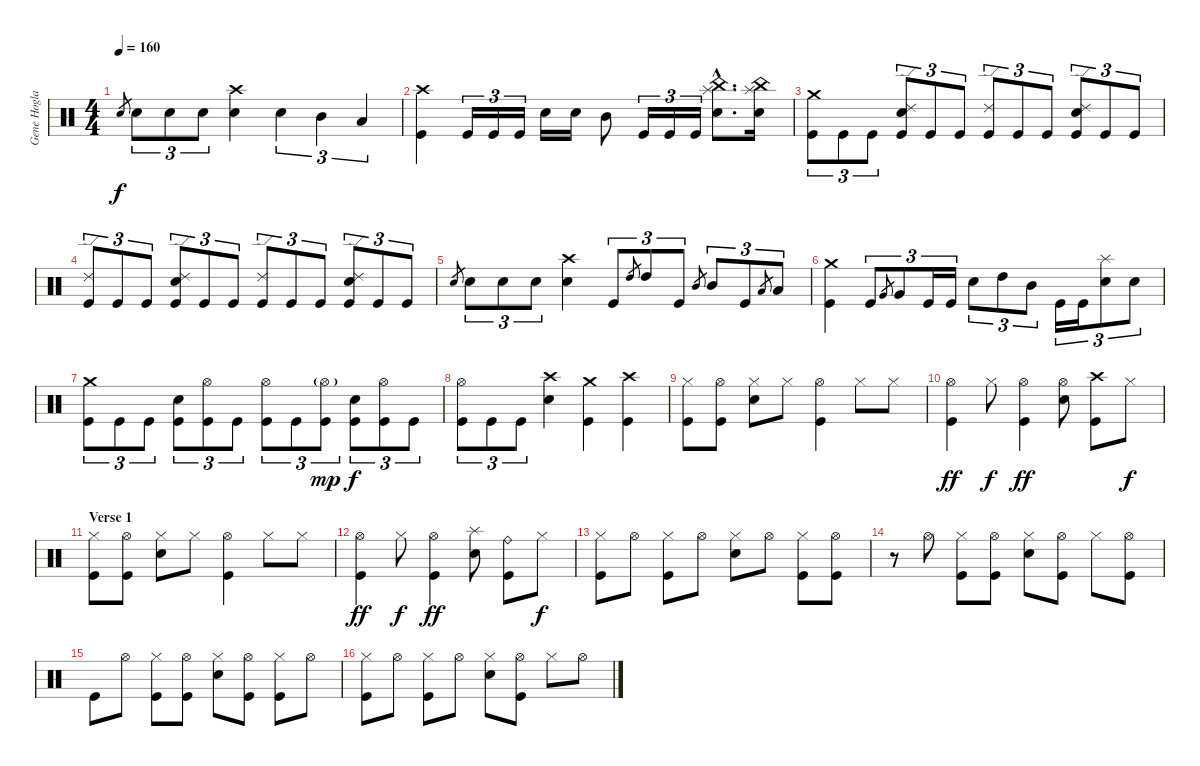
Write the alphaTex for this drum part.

\track ("Gene Hoglan" "Gene Hogla") {instrument percussion}
\staff {score}
\articulation defaults
\ts (4 4)
\tempo 160
\clef neutral
\ks c "Electric Snare (hit)".8{gr dy f} "Electric Snare (hit)".8{tu (3 2)} "Electric Snare (hit)".8{tu (3 2)} "Electric Snare (hit)".8{tu (3 2)}
("Crash high (hit)" "Electric Snare (hit)").4 "Electric Snare (hit)".4{tu (3 2)} "Mid Tom (hit)".4{tu (3 2)} "Low Tom (hit)".4{tu (3 2)} |
("Crash high (hit)" "Kick (hit)").4 "Kick (hit)".16{tu (3 2)} "Kick (hit)".16{tu (3 2)} "Kick (hit)".16{tu (3 2)} "Electric Snare (hit)".16 "Electric Snare (hit)".16 "Mid Tom (hit)".8 "Kick (hit)".16{tu (3 2)} "Kick (hit)".16{tu (3 2)} "Kick (hit)".16{tu (3 2)} ("Splash (hit)"{hac} "China (hit)"{hac} "Electric Snare (hit)"{hac}).8{d} ("Splash (hit)" "China (hit)" "Electric Snare (hit)").16 |
("Crash medium (hit)" "Kick (hit)").8{tu (3 2)} "Kick (hit)".8{tu (3 2)} "Kick (hit)".8{tu (3 2)} ("Ride (edge) 2" "Electric Snare (hit)" "Kick (hit)").8{tu (3 2)} "Kick (hit)".8{tu (3 2)} "Kick (hit)".8{tu (3 2)} ("Ride (edge) 2" "Kick (hit)").8{tu (3 2)} "Kick (hit)".8{tu (3 2)} "Kick (hit)".8{tu (3 2)} ("Ride (edge) 2" "Electric Snare (hit)" "Kick (hit)").8{tu (3 2)} "Kick (hit)".8{tu (3 2)} "Kick (hit)".8{tu (3 2)} |
("Ride (edge) 2" "Kick (hit)").8{tu (3 2)} "Kick (hit)".8{tu (3 2)} "Kick (hit)".8{tu (3 2)} ("Ride (edge) 2" "Electric Snare (hit)" "Kick (hit)").8{tu (3 2)} "Kick (hit)".8{tu (3 2)} "Kick (hit)".8{tu (3 2)} ("Ride (edge) 2" "Kick (hit)").8{tu (3 2)} "Kick (hit)".8{tu (3 2)} "Kick (hit)".8{tu (3 2)} ("Ride (edge) 2" "Electric Snare (hit)" "Kick (hit)").8{tu (3 2)} "Kick (hit)".8{tu (3 2)} "Kick (hit)".8{tu (3 2)} |
"Electric Snare (hit)".8{gr} "Electric Snare (hit)".8{tu (3 2)} "Electric Snare (hit)".8{tu (3 2)} "Electric Snare (hit)".8{tu (3 2)} ("Crash high (hit)" "Electric Snare (hit)").4 "Kick (hit)".8{tu (3 2)} "High Tom (hit)".8{gr} "High Tom (hit)".8{tu (3 2)} "Kick (hit)".8{tu (3 2)} "Mid Tom (hit)".8{gr} "Mid Tom (hit)".8{tu (3 2)} "Kick (hit)".8{tu (3 2)} "Low Tom (hit)".8{gr} "Low Tom (hit)".8{tu (3 2)} |
("Crash medium (hit)" "Kick (hit)").4 "Kick (hit)".8{tu (3 2)} "Very Low Tom (hit)".8{gr} "Very Low Tom (hit)".8{tu (3 2)} "Kick (hit)".16{tu (3 2)} "Kick (hit)".16{tu (3 2)} "Electric Snare (hit)".8{tu (3 2)} "High Tom (hit)".8{tu (3 2)} "Mid Tom (hit)".8{tu (3 2)} "Kick (hit)".16{tu (3 2)} "Kick (hit)".16{tu (3 2)} ("Splash (hit)" "Electric Snare (hit)").8{tu (3 2)} "Electric Snare (hit)".8{tu (3 2)} |
("Crash medium (hit)" "Kick (hit)").8{tu (3 2)} "Kick (hit)".8{tu (3 2)} "Kick (hit)".8{tu (3 2)} ("Electric Snare (hit)" "Kick (hit)").8{tu (3 2)} ("Hi-Hat (open)" "Kick (hit)").8{tu (3 2)} "Kick (hit)".8{tu (3 2)} ("Hi-Hat (open)" "Kick (hit)").8{tu (3 2)} "Kick (hit)".8{tu (3 2)} ("Hi-Hat (open)"{g} "Kick (hit)").8{tu (3 2) dy mp} ("Electric Snare (hit)" "Kick (hit)").8{tu (3 2) dy f} ("Hi-Hat (open)" "Kick (hit)").8{tu (3 2)} "Kick (hit)".8{tu (3 2)} |
("Hi-Hat (open)" "Kick (hit)").8{tu (3 2)} "Kick (hit)".8{tu (3 2)} "Kick (hit)".8{tu (3 2)} ("Crash high (hit)" "Electric Snare (hit)").4 ("Crash medium (hit)" "Kick (hit)").4 ("Crash high (hit)" "Kick (hit)").4 |
("Hi-Hat (closed)" "Kick (hit)").8 ("Hi-Hat (open)" "Kick (hit)").8 ("Hi-Hat (closed)" "Electric Snare (hit)").8 "Hi-Hat (closed)".8 ("Hi-Hat (open)" "Kick (hit)").4 "Hi-Hat (closed)".8 "Hi-Hat (closed)".8 |
("Hi-Hat (open)" "Kick (hit)").4{dy ff} "Hi-Hat (closed)".8{dy f} ("Hi-Hat (open)" "Kick (hit)").4{dy ff} ("Hi-Hat (open)" "Electric Snare (hit)").8 ("Crash high (hit)" "Kick (hit)").8 "Hi-Hat (closed)".8{dy f} |
\section ("" "Verse 1")
("Hi-Hat (closed)" "Kick (hit)").8 ("Hi-Hat (open)" "Kick (hit)").8 ("Hi-Hat (closed)" "Electric Snare (hit)").8 "Hi-Hat (closed)".8 ("Hi-Hat (open)" "Kick (hit)").4 "Hi-Hat (closed)".8 "Hi-Hat (closed)".8 |
("Hi-Hat (open)" "Kick (hit)").4{dy ff} "Hi-Hat (closed)".8{dy f} ("Hi-Hat (open)" "Kick (hit)").4{dy ff} ("Splash (hit)" "Electric Snare (hit)").8 ("Ride (bell)" "Kick (hit)").8 "Hi-Hat (closed)".8{dy f} |
("Hi-Hat (closed)" "Kick (hit)").8 "Hi-Hat (open)".8 ("Hi-Hat (closed)" "Kick (hit)").8 "Hi-Hat (open)".8 ("Hi-Hat (closed)" "Electric Snare (hit)").8 "Hi-Hat (open)".8 ("Hi-Hat (closed)" "Kick (hit)").8 ("Hi-Hat (open)" "Kick (hit)").8 |
r.8 "Hi-Hat (open)".8 ("Hi-Hat (closed)" "Kick (hit)").8 ("Hi-Hat (open)" "Kick (hit)").8 ("Hi-Hat (closed)" "Electric Snare (hit)").8 ("Hi-Hat (open)" "Kick (hit)").8 "Hi-Hat (closed)".8 ("Hi-Hat (open)" "Kick (hit)").8 |
"Kick (hit)".8 "Hi-Hat (open)".8 ("Hi-Hat (closed)" "Kick (hit)").8 ("Hi-Hat (open)" "Kick (hit)").8 ("Hi-Hat (closed)" "Electric Snare (hit)").8 ("Hi-Hat (open)" "Kick (hit)").8 ("Hi-Hat (closed)" "Kick (hit)").8 "Hi-Hat (open)".8 |
("Hi-Hat (closed)" "Kick (hit)").8 "Hi-Hat (open)".8 ("Hi-Hat (closed)" "Kick (hit)").8 "Hi-Hat (open)".8 ("Hi-Hat (closed)" "Electric Snare (hit)").8 ("Hi-Hat (open)" "Kick (hit)").8 "Hi-Hat (closed)".8 "Hi-Hat (open)".8
